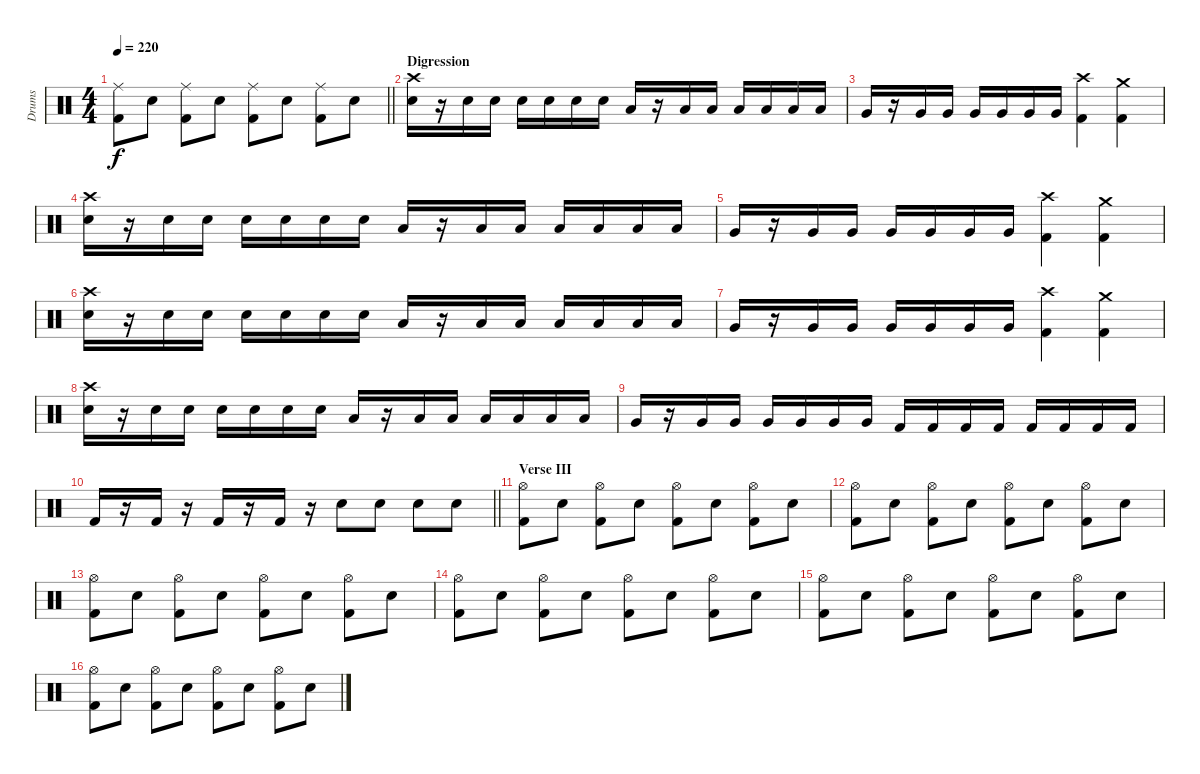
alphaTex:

\track ("Drums" "Drums") {instrument percussion}
\staff {score}
\articulation defaults
\ts (4 4)
\tempo 220
\clef neutral
\barLineRight lightlight
\ks c
("Kick (hit) 2" "Ride (middle)").8{dy f} "Snare (hit) 2".8 ("Kick (hit) 2" "Ride (middle)").8 "Snare (hit) 2".8 ("Kick (hit) 2" "Ride (middle)").8 "Snare (hit) 2".8 ("Kick (hit) 2" "Ride (middle)").8 "Snare (hit) 2".8 |
\section ("" "Digression")
("Snare (hit) 2" "Crash high (hit)").16 r.16 "Snare (hit) 2".16 "Snare (hit) 2".16 "Snare (hit) 2".16 "Snare (hit) 2".16 "Snare (hit) 2".16 "Snare (hit) 2".16 "Low Tom (hit)".16 r.16 "Low Tom (hit)".16 "Low Tom (hit)".16 "Low Tom (hit)".16 "Low Tom (hit)".16 "Low Tom (hit)".16 "Low Tom (hit)".16 |
"Very Low Tom (hit)".16 r.16 "Very Low Tom (hit)".16 "Very Low Tom (hit)".16 "Very Low Tom (hit)".16 "Very Low Tom (hit)".16 "Very Low Tom (hit)".16 "Very Low Tom (hit)".16 ("Kick (hit) 2" "Crash high (hit)").4 ("Kick (hit) 2" "Crash medium (hit)").4 |
("Snare (hit) 2" "Crash high (hit)").16 r.16 "Snare (hit) 2".16 "Snare (hit) 2".16 "Snare (hit) 2".16 "Snare (hit) 2".16 "Snare (hit) 2".16 "Snare (hit) 2".16 "Low Tom (hit)".16 r.16 "Low Tom (hit)".16 "Low Tom (hit)".16 "Low Tom (hit)".16 "Low Tom (hit)".16 "Low Tom (hit)".16 "Low Tom (hit)".16 |
"Very Low Tom (hit)".16 r.16 "Very Low Tom (hit)".16 "Very Low Tom (hit)".16 "Very Low Tom (hit)".16 "Very Low Tom (hit)".16 "Very Low Tom (hit)".16 "Very Low Tom (hit)".16 ("Kick (hit) 2" "Crash high (hit)").4 ("Kick (hit) 2" "Crash medium (hit)").4 |
("Snare (hit) 2" "Crash high (hit)").16 r.16 "Snare (hit) 2".16 "Snare (hit) 2".16 "Snare (hit) 2".16 "Snare (hit) 2".16 "Snare (hit) 2".16 "Snare (hit) 2".16 "Low Tom (hit)".16 r.16 "Low Tom (hit)".16 "Low Tom (hit)".16 "Low Tom (hit)".16 "Low Tom (hit)".16 "Low Tom (hit)".16 "Low Tom (hit)".16 |
"Very Low Tom (hit)".16 r.16 "Very Low Tom (hit)".16 "Very Low Tom (hit)".16 "Very Low Tom (hit)".16 "Very Low Tom (hit)".16 "Very Low Tom (hit)".16 "Very Low Tom (hit)".16 ("Kick (hit) 2" "Crash high (hit)").4 ("Kick (hit) 2" "Crash medium (hit)").4 |
("Snare (hit) 2" "Crash high (hit)").16 r.16 "Snare (hit) 2".16 "Snare (hit) 2".16 "Snare (hit) 2".16 "Snare (hit) 2".16 "Snare (hit) 2".16 "Snare (hit) 2".16 "Low Tom (hit)".16 r.16 "Low Tom (hit)".16 "Low Tom (hit)".16 "Low Tom (hit)".16 "Low Tom (hit)".16 "Low Tom (hit)".16 "Low Tom (hit)".16 |
"Very Low Tom (hit)".16 r.16 "Very Low Tom (hit)".16 "Very Low Tom (hit)".16 "Very Low Tom (hit)".16 "Very Low Tom (hit)".16 "Very Low Tom (hit)".16 "Very Low Tom (hit)".16 "Kick (hit) 2".16 "Kick (hit) 2".16 "Kick (hit) 2".16 "Kick (hit) 2".16 "Kick (hit) 2".16 "Kick (hit) 2".16 "Kick (hit) 2".16 "Kick (hit) 2".16 |
\barLineRight lightlight "Kick (hit) 2".16
r.16 "Kick (hit) 2".16 r.16 "Kick (hit) 2".16 r.16 "Kick (hit) 2".16 r.16 "Snare (hit) 2".8 "Snare (hit) 2".8 "Snare (hit) 2".8 "Snare (hit) 2".8 |
\section ("" "Verse III")
("Kick (hit) 2" "Hi-Hat (open)").8 "Snare (hit) 2".8 ("Kick (hit) 2" "Hi-Hat (open)").8 "Snare (hit) 2".8 ("Kick (hit) 2" "Hi-Hat (open)").8 "Snare (hit) 2".8 ("Kick (hit) 2" "Hi-Hat (open)").8 "Snare (hit) 2".8 |
("Kick (hit) 2" "Hi-Hat (open)").8 "Snare (hit) 2".8 ("Kick (hit) 2" "Hi-Hat (open)").8 "Snare (hit) 2".8 ("Kick (hit) 2" "Hi-Hat (open)").8 "Snare (hit) 2".8 ("Kick (hit) 2" "Hi-Hat (open)").8 "Snare (hit) 2".8 |
("Kick (hit) 2" "Hi-Hat (open)").8 "Snare (hit) 2".8 ("Kick (hit) 2" "Hi-Hat (open)").8 "Snare (hit) 2".8 ("Kick (hit) 2" "Hi-Hat (open)").8 "Snare (hit) 2".8 ("Kick (hit) 2" "Hi-Hat (open)").8 "Snare (hit) 2".8 |
("Kick (hit) 2" "Hi-Hat (open)").8 "Snare (hit) 2".8 ("Kick (hit) 2" "Hi-Hat (open)").8 "Snare (hit) 2".8 ("Kick (hit) 2" "Hi-Hat (open)").8 "Snare (hit) 2".8 ("Kick (hit) 2" "Hi-Hat (open)").8 "Snare (hit) 2".8 |
("Kick (hit) 2" "Hi-Hat (open)").8 "Snare (hit) 2".8 ("Kick (hit) 2" "Hi-Hat (open)").8 "Snare (hit) 2".8 ("Kick (hit) 2" "Hi-Hat (open)").8 "Snare (hit) 2".8 ("Kick (hit) 2" "Hi-Hat (open)").8 "Snare (hit) 2".8 |
("Kick (hit) 2" "Hi-Hat (open)").8 "Snare (hit) 2".8 ("Kick (hit) 2" "Hi-Hat (open)").8 "Snare (hit) 2".8 ("Kick (hit) 2" "Hi-Hat (open)").8 "Snare (hit) 2".8 ("Kick (hit) 2" "Hi-Hat (open)").8 "Snare (hit) 2".8
